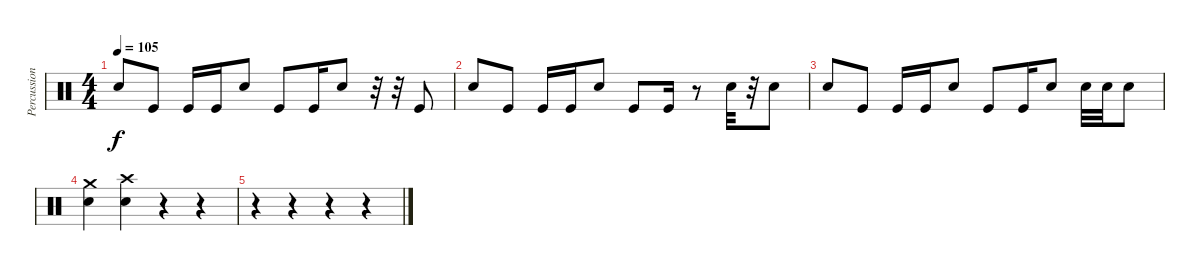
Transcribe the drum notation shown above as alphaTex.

\track ("Percussion" "Percussion") {instrument percussion}
\staff {score}
\articulation defaults
\ts (4 4)
\tempo 105
\clef neutral
\ks c "Electric Snare (hit)".8{dy f} "Kick (hit)".8 "Kick (hit)".16 "Kick (hit)".16 "Electric Snare (hit)".8 "Kick (hit)".8 "Kick (hit)".16 "Electric Snare (hit)".8
r.32 r.32 "Kick (hit)".8 |
"Electric Snare (hit)".8 "Kick (hit)".8 "Kick (hit)".16 "Kick (hit)".16 "Electric Snare (hit)".8 "Kick (hit)".8 "Kick (hit)".16 r.8 "Electric Snare (hit)".32 r.32 "Electric Snare (hit)".8 |
"Electric Snare (hit)".8 "Kick (hit)".8 "Kick (hit)".16 "Kick (hit)".16 "Electric Snare (hit)".8 "Kick (hit)".8 "Kick (hit)".16 "Electric Snare (hit)".8 "Electric Snare (hit)".32 "Electric Snare (hit)".32 "Electric Snare (hit)".8 |
("Crash medium (hit)" "Electric Snare (hit)").4 ("Crash high (hit)" "Electric Snare (hit)").4 r.4 r.4 |
r.4 r.4 r.4 r.4
